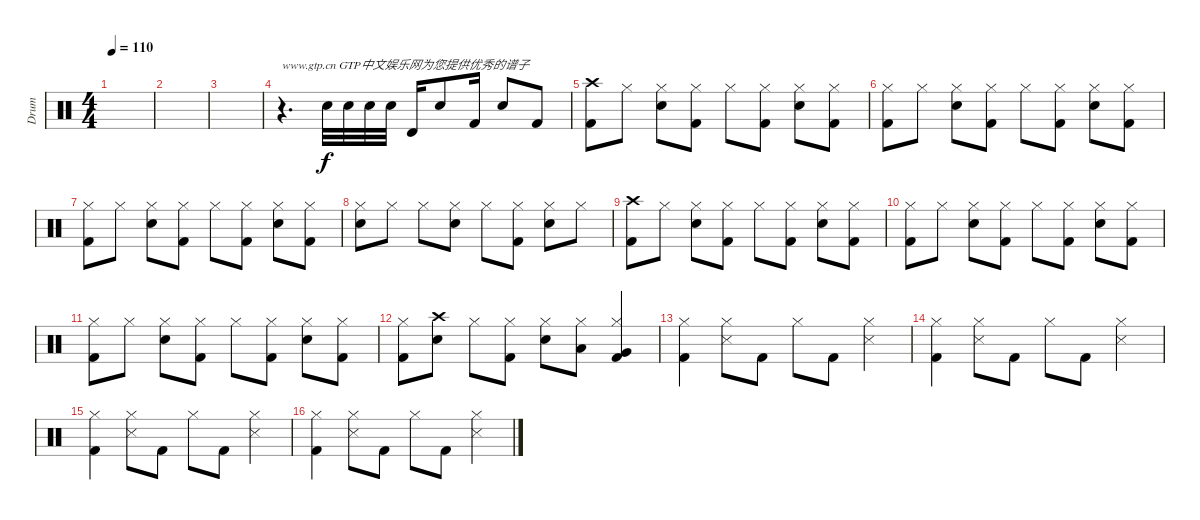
\track ("Drum" "Drum") {instrument percussion}
\staff {score}
\articulation defaults
\ts (4 4)
\tempo 110
\clef neutral
\ks c
|
|
|
r.4{d txt "www.gtp.cn GTP中文娱乐网为您提供优秀的谱子"} "Electric Snare (hit)".32{volume 5} "Electric Snare (hit)".32{volume 7} "Electric Snare (hit)".32{volume 9} "Electric Snare (hit)".32{volume 11} "Timbale high (hit)".16{volume 13} "Electric Snare (hit)".8 "Kick (hit) 2".16 "Electric Snare (hit)".8 "Kick (hit) 2".8 |
("Crash high (hit)" "Kick (hit) 2").8 "Hi-Hat (closed)".8 ("Hi-Hat (closed)" "Electric Snare (hit)").8 ("Hi-Hat (closed)" "Kick (hit) 2").8 "Hi-Hat (closed)".8 ("Hi-Hat (closed)" "Kick (hit) 2").8 ("Hi-Hat (closed)" "Electric Snare (hit)").8 ("Hi-Hat (closed)" "Kick (hit) 2").8 |
("Hi-Hat (closed)" "Kick (hit) 2").8 "Hi-Hat (closed)".8 ("Hi-Hat (closed)" "Electric Snare (hit)").8 ("Hi-Hat (closed)" "Kick (hit) 2").8 "Hi-Hat (closed)".8 ("Hi-Hat (closed)" "Kick (hit) 2").8 ("Hi-Hat (closed)" "Electric Snare (hit)").8 ("Hi-Hat (closed)" "Kick (hit) 2").8 |
("Hi-Hat (closed)" "Kick (hit) 2").8 "Hi-Hat (closed)".8 ("Hi-Hat (closed)" "Electric Snare (hit)").8 ("Hi-Hat (closed)" "Kick (hit) 2").8 "Hi-Hat (closed)".8 ("Hi-Hat (closed)" "Kick (hit) 2").8 ("Hi-Hat (closed)" "Electric Snare (hit)").8 ("Hi-Hat (closed)" "Kick (hit) 2").8 |
("Hi-Hat (closed)" "Electric Snare (hit)").8 "Hi-Hat (closed)".8 "Hi-Hat (closed)".8 ("Hi-Hat (closed)" "Electric Snare (hit)").8 "Hi-Hat (closed)".8 ("Hi-Hat (closed)" "Kick (hit) 2").8 ("Hi-Hat (closed)" "Electric Snare (hit)").8 "Hi-Hat (closed)".8 |
("Crash high (hit)" "Kick (hit) 2").8 "Hi-Hat (closed)".8 ("Hi-Hat (closed)" "Electric Snare (hit)").8 ("Hi-Hat (closed)" "Kick (hit) 2").8 "Hi-Hat (closed)".8 ("Hi-Hat (closed)" "Kick (hit) 2").8 ("Hi-Hat (closed)" "Electric Snare (hit)").8 ("Hi-Hat (closed)" "Kick (hit) 2").8 |
("Hi-Hat (closed)" "Kick (hit) 2").8 "Hi-Hat (closed)".8 ("Hi-Hat (closed)" "Electric Snare (hit)").8 ("Hi-Hat (closed)" "Kick (hit) 2").8 "Hi-Hat (closed)".8 ("Hi-Hat (closed)" "Kick (hit) 2").8 ("Hi-Hat (closed)" "Electric Snare (hit)").8 ("Hi-Hat (closed)" "Kick (hit) 2").8 |
("Hi-Hat (closed)" "Kick (hit) 2").8 "Hi-Hat (closed)".8 ("Hi-Hat (closed)" "Electric Snare (hit)").8 ("Hi-Hat (closed)" "Kick (hit) 2").8 "Hi-Hat (closed)".8 ("Hi-Hat (closed)" "Kick (hit) 2").8 ("Hi-Hat (closed)" "Electric Snare (hit)").8 ("Hi-Hat (closed)" "Kick (hit) 2").8 |
("Hi-Hat (closed)" "Kick (hit) 2").8 ("Crash high (hit)" "Electric Snare (hit)").8 "Hi-Hat (closed)".8 ("Hi-Hat (closed)" "Kick (hit) 2").8 ("Hi-Hat (closed)" "Electric Snare (hit)").8 ("Hi-Hat (closed)" "Low Tom (hit)").8 ("Hi-Hat (closed)" "Very Low Tom (hit)" "Kick (hit) 2").4 |
("Hi-Hat (closed)" "Kick (hit) 2").4 ("Hi-Hat (closed)" "Snare (side stick) 3").8 "Kick (hit) 2".8 "Hi-Hat (closed)".8 "Kick (hit) 2".8 ("Hi-Hat (closed)" "Snare (side stick) 3").4 |
("Hi-Hat (closed)" "Kick (hit) 2").4 ("Hi-Hat (closed)" "Snare (side stick) 3").8 "Kick (hit) 2".8 "Hi-Hat (closed)".8 "Kick (hit) 2".8 ("Hi-Hat (closed)" "Snare (side stick) 3").4 |
("Hi-Hat (closed)" "Kick (hit) 2").4 ("Hi-Hat (closed)" "Snare (side stick) 3").8 "Kick (hit) 2".8 "Hi-Hat (closed)".8 "Kick (hit) 2".8 ("Hi-Hat (closed)" "Snare (side stick) 3").4 |
("Hi-Hat (closed)" "Kick (hit) 2").4 ("Hi-Hat (closed)" "Snare (side stick) 3").8 "Kick (hit) 2".8 "Hi-Hat (closed)".8 "Kick (hit) 2".8 ("Hi-Hat (closed)" "Snare (side stick) 3").4
